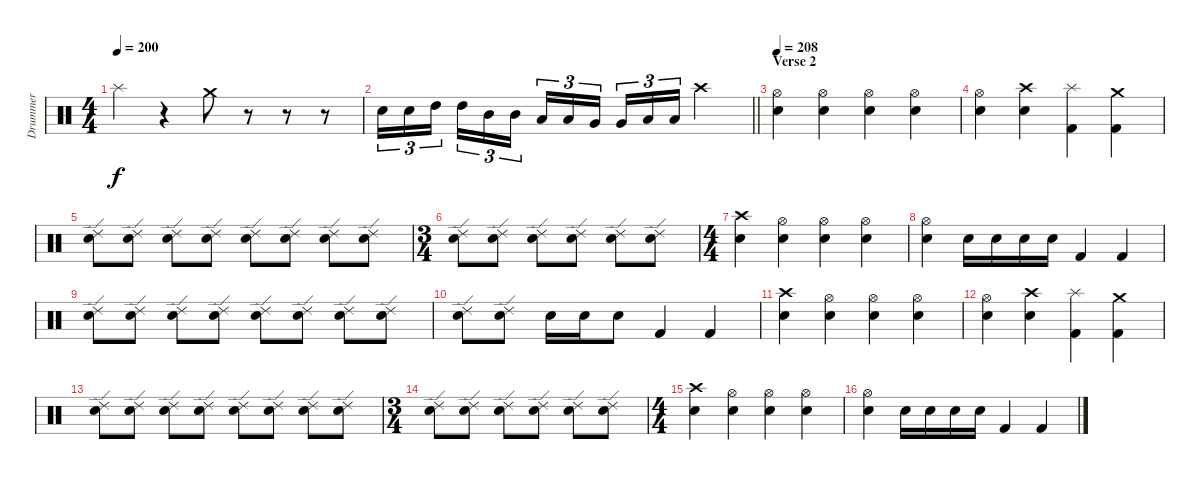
\track ("Drummer" "Drummer") {instrument percussion}
\staff {score}
\articulation defaults
\ts (4 4)
\tempo 200
\clef neutral
\ks c "Splash (hit)".4{dy f}
r.4 "Crash medium (hit)".8 r.8 r.8 r.8 |
\barLineRight lightlight "Electric Snare (hit)".16{tu (3 2)} "Electric Snare (hit)".16{tu (3 2)} "High Tom (hit)".16{tu (3 2) beam splitsecondary} "High Tom (hit)".16{tu (3 2)} "Mid Tom (hit)".16{tu (3 2)} "Mid Tom (hit)".16{tu (3 2)} "Low Tom (hit)".16{tu (3 2)} "Low Tom (hit)".16{tu (3 2)} "Very Low Tom (hit)".16{tu (3 2) beam splitsecondary} "Very Low Tom (hit)".16{tu (3 2)} "Low Floor Tom (hit)".16{tu (3 2)} "Low Floor Tom (hit)".16{tu (3 2)} "Crash high (hit)".2
|
\section ("" "Verse 2")
\tempo 208
("Hi-Hat (open)" "Electric Snare (hit)").4 ("Hi-Hat (open)" "Electric Snare (hit)").4 ("Hi-Hat (open)" "Electric Snare (hit)").4 ("Hi-Hat (open)" "Electric Snare (hit)").4 |
("Hi-Hat (open)" "Electric Snare (hit)").4 ("Crash high (hit)" "Electric Snare (hit)").4 ("Splash (hit)" "Kick (hit) 2").4 ("Crash medium (hit)" "Kick (hit) 2").4 |
("Ride (edge) 2" "Electric Snare (hit)").8 ("Ride (edge) 2" "Electric Snare (hit)").8 ("Ride (edge) 2" "Electric Snare (hit)").8 ("Ride (edge) 2" "Electric Snare (hit)").8 ("Ride (edge) 2" "Electric Snare (hit)").8 ("Ride (edge) 2" "Electric Snare (hit)").8 ("Ride (edge) 2" "Electric Snare (hit)").8 ("Ride (edge) 2" "Electric Snare (hit)").8 |
\ts (3 4)
("Ride (edge) 2" "Electric Snare (hit)").8 ("Ride (edge) 2" "Electric Snare (hit)").8 ("Ride (edge) 2" "Electric Snare (hit)").8 ("Ride (edge) 2" "Electric Snare (hit)").8 ("Ride (edge) 2" "Electric Snare (hit)").8 ("Ride (edge) 2" "Electric Snare (hit)").8 |
\ts (4 4)
("Crash high (hit)" "Electric Snare (hit)").4 ("Hi-Hat (open)" "Electric Snare (hit)").4 ("Hi-Hat (open)" "Electric Snare (hit)").4 ("Hi-Hat (open)" "Electric Snare (hit)").4 |
("Hi-Hat (open)" "Electric Snare (hit)").4 "Electric Snare (hit)".16 "Electric Snare (hit)".16 "Electric Snare (hit)".16 "Electric Snare (hit)".16 "Kick (hit) 2".4 "Kick (hit) 2".4 |
("Ride (edge) 2" "Electric Snare (hit)").8 ("Ride (edge) 2" "Electric Snare (hit)").8 ("Ride (edge) 2" "Electric Snare (hit)").8 ("Ride (edge) 2" "Electric Snare (hit)").8 ("Ride (edge) 2" "Electric Snare (hit)").8 ("Ride (edge) 2" "Electric Snare (hit)").8 ("Ride (edge) 2" "Electric Snare (hit)").8 ("Ride (edge) 2" "Electric Snare (hit)").8 |
("Ride (edge) 2" "Electric Snare (hit)").8 ("Ride (edge) 2" "Electric Snare (hit)").8 "Electric Snare (hit)".16 "Electric Snare (hit)".16 "Electric Snare (hit)".8 "Kick (hit) 2".4 "Kick (hit) 2".4 |
("Crash high (hit)" "Electric Snare (hit)").4 ("Hi-Hat (open)" "Electric Snare (hit)").4 ("Hi-Hat (open)" "Electric Snare (hit)").4 ("Hi-Hat (open)" "Electric Snare (hit)").4 |
("Hi-Hat (open)" "Electric Snare (hit)").4 ("Crash high (hit)" "Electric Snare (hit)").4 ("Splash (hit)" "Kick (hit) 2").4 ("Crash medium (hit)" "Kick (hit) 2").4 |
("Ride (edge) 2" "Electric Snare (hit)").8 ("Ride (edge) 2" "Electric Snare (hit)").8 ("Ride (edge) 2" "Electric Snare (hit)").8 ("Ride (edge) 2" "Electric Snare (hit)").8 ("Ride (edge) 2" "Electric Snare (hit)").8 ("Ride (edge) 2" "Electric Snare (hit)").8 ("Ride (edge) 2" "Electric Snare (hit)").8 ("Ride (edge) 2" "Electric Snare (hit)").8 |
\ts (3 4)
("Ride (edge) 2" "Electric Snare (hit)").8 ("Ride (edge) 2" "Electric Snare (hit)").8 ("Ride (edge) 2" "Electric Snare (hit)").8 ("Ride (edge) 2" "Electric Snare (hit)").8 ("Ride (edge) 2" "Electric Snare (hit)").8 ("Ride (edge) 2" "Electric Snare (hit)").8 |
\ts (4 4)
("Crash high (hit)" "Electric Snare (hit)").4 ("Hi-Hat (open)" "Electric Snare (hit)").4 ("Hi-Hat (open)" "Electric Snare (hit)").4 ("Hi-Hat (open)" "Electric Snare (hit)").4 |
("Hi-Hat (open)" "Electric Snare (hit)").4 "Electric Snare (hit)".16 "Electric Snare (hit)".16 "Electric Snare (hit)".16 "Electric Snare (hit)".16 "Kick (hit) 2".4 "Kick (hit) 2".4
